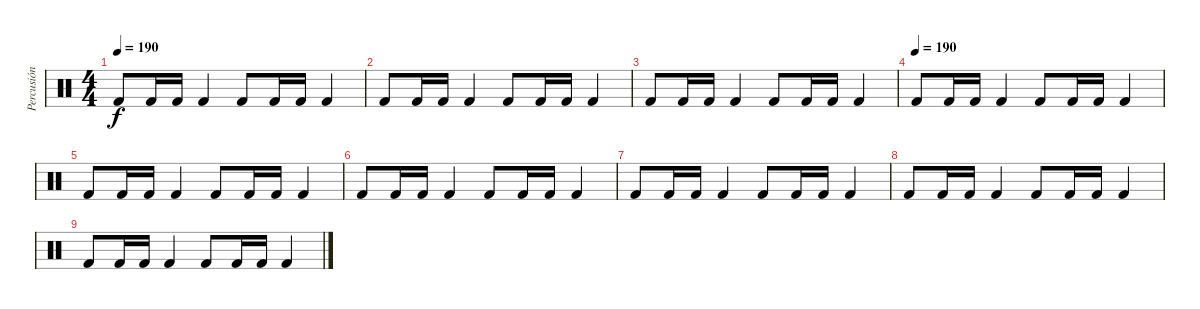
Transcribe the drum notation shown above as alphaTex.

\track ("Percusión" "Percusión") {instrument percussion}
\staff {score}
\articulation defaults
\ts (4 4)
\tempo 190
\clef neutral
\ks c "Kick (hit) 2".8{dy f} "Kick (hit) 2".16 "Kick (hit) 2".16 "Kick (hit) 2".4 "Kick (hit) 2".8 "Kick (hit) 2".16 "Kick (hit) 2".16 "Kick (hit) 2".4
|
"Kick (hit) 2".8 "Kick (hit) 2".16 "Kick (hit) 2".16 "Kick (hit) 2".4 "Kick (hit) 2".8 "Kick (hit) 2".16 "Kick (hit) 2".16 "Kick (hit) 2".4 |
"Kick (hit) 2".8 "Kick (hit) 2".16 "Kick (hit) 2".16 "Kick (hit) 2".4 "Kick (hit) 2".8 "Kick (hit) 2".16 "Kick (hit) 2".16 "Kick (hit) 2".4 |
\tempo (190)
"Kick (hit) 2".8 "Kick (hit) 2".16 "Kick (hit) 2".16 "Kick (hit) 2".4 "Kick (hit) 2".8 "Kick (hit) 2".16 "Kick (hit) 2".16 "Kick (hit) 2".4 |
"Kick (hit) 2".8 "Kick (hit) 2".16 "Kick (hit) 2".16 "Kick (hit) 2".4 "Kick (hit) 2".8 "Kick (hit) 2".16 "Kick (hit) 2".16 "Kick (hit) 2".4 |
"Kick (hit) 2".8 "Kick (hit) 2".16 "Kick (hit) 2".16 "Kick (hit) 2".4 "Kick (hit) 2".8 "Kick (hit) 2".16 "Kick (hit) 2".16 "Kick (hit) 2".4 |
"Kick (hit) 2".8 "Kick (hit) 2".16 "Kick (hit) 2".16 "Kick (hit) 2".4 "Kick (hit) 2".8 "Kick (hit) 2".16 "Kick (hit) 2".16 "Kick (hit) 2".4 |
"Kick (hit) 2".8 "Kick (hit) 2".16 "Kick (hit) 2".16 "Kick (hit) 2".4 "Kick (hit) 2".8 "Kick (hit) 2".16 "Kick (hit) 2".16 "Kick (hit) 2".4 |
"Kick (hit) 2".8 "Kick (hit) 2".16 "Kick (hit) 2".16 "Kick (hit) 2".4 "Kick (hit) 2".8 "Kick (hit) 2".16 "Kick (hit) 2".16 "Kick (hit) 2".4
